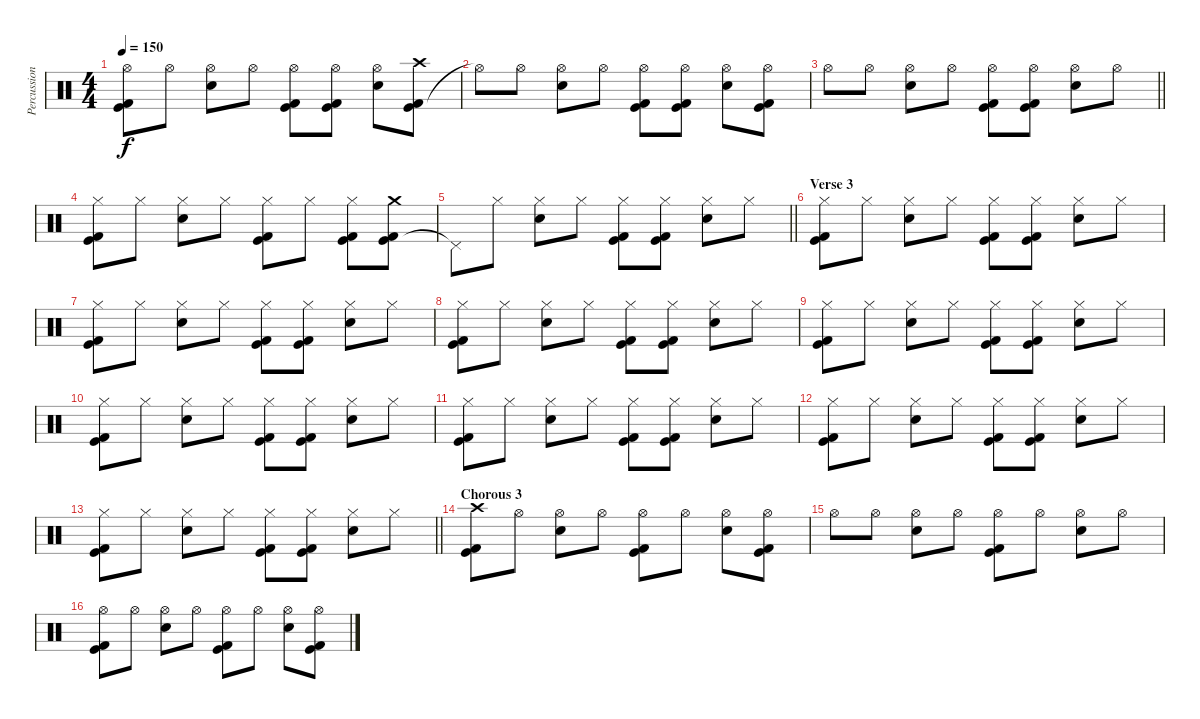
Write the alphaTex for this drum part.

\track ("Percussion" "Percussion") {instrument percussion}
\staff {score}
\articulation defaults
\ts (4 4)
\tempo 150
\clef neutral
\ks c
("Kick (hit)" "Kick (hit) 2" "Hi-Hat (open)").8{dy f} "Hi-Hat (open)".8 ("Electric Snare (hit)" "Hi-Hat (open)").8 "Hi-Hat (open)".8 ("Kick (hit)" "Kick (hit) 2" "Hi-Hat (open)").8 ("Kick (hit)" "Kick (hit) 2" "Hi-Hat (open)").8 ("Electric Snare (hit)" "Hi-Hat (open)").8 ("Kick (hit)" "Kick (hit) 2" "Crash high (hit)").8 |
"Hi-Hat (open)"{t}.8 "Hi-Hat (open)".8 ("Electric Snare (hit)" "Hi-Hat (open)").8 "Hi-Hat (open)".8 ("Kick (hit)" "Kick (hit) 2" "Hi-Hat (open)").8 ("Kick (hit)" "Kick (hit) 2" "Hi-Hat (open)").8 ("Electric Snare (hit)" "Hi-Hat (open)").8 ("Kick (hit)" "Kick (hit) 2" "Hi-Hat (open)").8 |
\barLineRight lightlight "Hi-Hat (open)".8 "Hi-Hat (open)".8
("Electric Snare (hit)" "Hi-Hat (open)").8 "Hi-Hat (open)".8 ("Kick (hit)" "Kick (hit) 2" "Hi-Hat (open)").8 ("Kick (hit)" "Kick (hit) 2" "Hi-Hat (open)").8 ("Electric Snare (hit)" "Hi-Hat (open)").8 "Hi-Hat (open)".8 |
\section ("" "")
("Kick (hit)" "Kick (hit) 2" "Hi-Hat (closed)").8 "Hi-Hat (closed)".8 ("Electric Snare (hit)" "Hi-Hat (closed)").8 "Hi-Hat (closed)".8 ("Kick (hit)" "Kick (hit) 2" "Hi-Hat (closed)").8 "Hi-Hat (closed)".8 ("Kick (hit)" "Kick (hit) 2" "Hi-Hat (closed)").8 ("Kick (hit)" "Kick (hit) 2" "Crash medium (hit)").8 |
\barLineRight lightlight "Pedal Hi-Hat (hit)"{t}.8 "Hi-Hat (closed)".8
("Electric Snare (hit)" "Hi-Hat (closed)").8 "Hi-Hat (closed)".8 ("Kick (hit)" "Kick (hit) 2" "Hi-Hat (closed)").8 ("Kick (hit)" "Kick (hit) 2" "Hi-Hat (closed)").8 ("Electric Snare (hit)" "Hi-Hat (closed)").8 "Hi-Hat (closed)".8 |
\section ("" "Verse 3")
("Kick (hit)" "Kick (hit) 2" "Hi-Hat (closed)").8 "Hi-Hat (closed)".8 ("Electric Snare (hit)" "Hi-Hat (closed)").8 "Hi-Hat (closed)".8 ("Kick (hit)" "Kick (hit) 2" "Hi-Hat (closed)").8 ("Kick (hit)" "Kick (hit) 2" "Hi-Hat (closed)").8 ("Electric Snare (hit)" "Hi-Hat (closed)").8 "Hi-Hat (closed)".8 |
("Kick (hit)" "Kick (hit) 2" "Hi-Hat (closed)").8 "Hi-Hat (closed)".8 ("Electric Snare (hit)" "Hi-Hat (closed)").8 "Hi-Hat (closed)".8 ("Kick (hit)" "Kick (hit) 2" "Hi-Hat (closed)").8 ("Kick (hit)" "Kick (hit) 2" "Hi-Hat (closed)").8 ("Electric Snare (hit)" "Hi-Hat (closed)").8 "Hi-Hat (closed)".8 |
("Kick (hit)" "Kick (hit) 2" "Hi-Hat (closed)").8 "Hi-Hat (closed)".8 ("Electric Snare (hit)" "Hi-Hat (closed)").8 "Hi-Hat (closed)".8 ("Kick (hit)" "Kick (hit) 2" "Hi-Hat (closed)").8 ("Kick (hit)" "Kick (hit) 2" "Hi-Hat (closed)").8 ("Electric Snare (hit)" "Hi-Hat (closed)").8 "Hi-Hat (closed)".8 |
("Kick (hit)" "Kick (hit) 2" "Hi-Hat (closed)").8 "Hi-Hat (closed)".8 ("Electric Snare (hit)" "Hi-Hat (closed)").8 "Hi-Hat (closed)".8 ("Kick (hit)" "Kick (hit) 2" "Hi-Hat (closed)").8 ("Kick (hit)" "Kick (hit) 2" "Hi-Hat (closed)").8 ("Electric Snare (hit)" "Hi-Hat (closed)").8 "Hi-Hat (closed)".8 |
("Kick (hit)" "Kick (hit) 2" "Hi-Hat (closed)").8 "Hi-Hat (closed)".8 ("Electric Snare (hit)" "Hi-Hat (closed)").8 "Hi-Hat (closed)".8 ("Kick (hit)" "Kick (hit) 2" "Hi-Hat (closed)").8 ("Kick (hit)" "Kick (hit) 2" "Hi-Hat (closed)").8 ("Electric Snare (hit)" "Hi-Hat (closed)").8 "Hi-Hat (closed)".8 |
("Kick (hit)" "Kick (hit) 2" "Hi-Hat (closed)").8 "Hi-Hat (closed)".8 ("Electric Snare (hit)" "Hi-Hat (closed)").8 "Hi-Hat (closed)".8 ("Kick (hit)" "Kick (hit) 2" "Hi-Hat (closed)").8 ("Kick (hit)" "Kick (hit) 2" "Hi-Hat (closed)").8 ("Electric Snare (hit)" "Hi-Hat (closed)").8 "Hi-Hat (closed)".8 |
("Kick (hit)" "Kick (hit) 2" "Hi-Hat (closed)").8 "Hi-Hat (closed)".8 ("Electric Snare (hit)" "Hi-Hat (closed)").8 "Hi-Hat (closed)".8 ("Kick (hit)" "Kick (hit) 2" "Hi-Hat (closed)").8 ("Kick (hit)" "Kick (hit) 2" "Hi-Hat (closed)").8 ("Electric Snare (hit)" "Hi-Hat (closed)").8 "Hi-Hat (closed)".8 |
\barLineRight lightlight
("Kick (hit)" "Kick (hit) 2" "Hi-Hat (closed)").8 "Hi-Hat (closed)".8 ("Electric Snare (hit)" "Hi-Hat (closed)").8 "Hi-Hat (closed)".8 ("Kick (hit)" "Kick (hit) 2" "Hi-Hat (closed)").8 ("Kick (hit)" "Kick (hit) 2" "Hi-Hat (closed)").8 ("Electric Snare (hit)" "Hi-Hat (closed)").8 "Hi-Hat (closed)".8 |
\section ("" "Chorous 3")
("Kick (hit)" "Kick (hit) 2" "Crash high (hit)").8 "Hi-Hat (open)".8 ("Electric Snare (hit)" "Hi-Hat (open)").8 "Hi-Hat (open)".8 ("Kick (hit)" "Kick (hit) 2" "Hi-Hat (open)").8 "Hi-Hat (open)".8 ("Electric Snare (hit)" "Hi-Hat (open)").8 ("Kick (hit)" "Kick (hit) 2" "Hi-Hat (open)").8 |
"Hi-Hat (open)".8 "Hi-Hat (open)".8 ("Electric Snare (hit)" "Hi-Hat (open)").8 "Hi-Hat (open)".8 ("Kick (hit)" "Kick (hit) 2" "Hi-Hat (open)").8 "Hi-Hat (open)".8 ("Electric Snare (hit)" "Hi-Hat (open)").8 "Hi-Hat (open)".8 |
("Kick (hit)" "Kick (hit) 2" "Hi-Hat (open)").8 "Hi-Hat (open)".8 ("Electric Snare (hit)" "Hi-Hat (open)").8 "Hi-Hat (open)".8 ("Kick (hit)" "Kick (hit) 2" "Hi-Hat (open)").8 "Hi-Hat (open)".8 ("Electric Snare (hit)" "Hi-Hat (open)").8 ("Kick (hit)" "Kick (hit) 2" "Hi-Hat (open)").8
